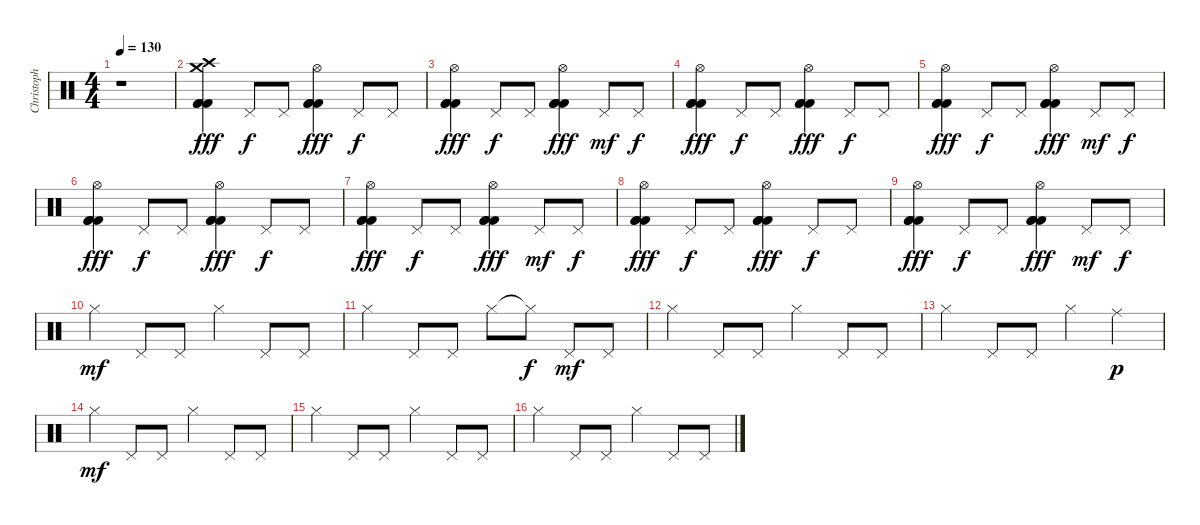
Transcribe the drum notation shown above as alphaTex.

\track ("Christoph Schneider" "Christoph ") {instrument percussion}
\staff {score}
\articulation defaults
\ts (4 4)
\tempo 130
\clef neutral
\ks c
r.1{dy fff} |
("Crash medium (hit)" "Crash high (hit)" "Kick (hit) 2" "Kick (hit) 2" "Kick (hit) 2").4 "Pedal Hi-Hat (hit)".8{dy f} "Pedal Hi-Hat (hit)".8 ("Hi-Hat (open)" "Kick (hit) 2" "Kick (hit) 2" "Kick (hit) 2").4{dy fff} "Pedal Hi-Hat (hit)".8{dy f} "Pedal Hi-Hat (hit)".8 |
("Hi-Hat (open)" "Kick (hit) 2" "Kick (hit) 2" "Kick (hit) 2").4{dy fff} "Pedal Hi-Hat (hit)".8{dy f} "Pedal Hi-Hat (hit)".8 ("Hi-Hat (open)" "Kick (hit) 2" "Kick (hit) 2" "Kick (hit) 2").4{dy fff} "Pedal Hi-Hat (hit)".8{dy mf} "Pedal Hi-Hat (hit)".8{dy f} |
("Hi-Hat (open)" "Kick (hit) 2" "Kick (hit) 2" "Kick (hit) 2").4{dy fff} "Pedal Hi-Hat (hit)".8{dy f} "Pedal Hi-Hat (hit)".8 ("Hi-Hat (open)" "Kick (hit) 2" "Kick (hit) 2" "Kick (hit) 2").4{dy fff} "Pedal Hi-Hat (hit)".8{dy f} "Pedal Hi-Hat (hit)".8 |
("Hi-Hat (open)" "Kick (hit) 2" "Kick (hit) 2" "Kick (hit) 2").4{dy fff} "Pedal Hi-Hat (hit)".8{dy f} "Pedal Hi-Hat (hit)".8 ("Hi-Hat (open)" "Kick (hit) 2" "Kick (hit) 2" "Kick (hit) 2").4{dy fff} "Pedal Hi-Hat (hit)".8{dy mf} "Pedal Hi-Hat (hit)".8{dy f} |
("Hi-Hat (open)" "Kick (hit) 2" "Kick (hit) 2" "Kick (hit) 2").4{dy fff} "Pedal Hi-Hat (hit)".8{dy f} "Pedal Hi-Hat (hit)".8 ("Hi-Hat (open)" "Kick (hit) 2" "Kick (hit) 2" "Kick (hit) 2").4{dy fff} "Pedal Hi-Hat (hit)".8{dy f} "Pedal Hi-Hat (hit)".8 |
("Hi-Hat (open)" "Kick (hit) 2" "Kick (hit) 2" "Kick (hit) 2").4{dy fff} "Pedal Hi-Hat (hit)".8{dy f} "Pedal Hi-Hat (hit)".8 ("Hi-Hat (open)" "Kick (hit) 2" "Kick (hit) 2" "Kick (hit) 2").4{dy fff} "Pedal Hi-Hat (hit)".8{dy mf} "Pedal Hi-Hat (hit)".8{dy f} |
("Hi-Hat (open)" "Kick (hit) 2" "Kick (hit) 2" "Kick (hit) 2").4{dy fff} "Pedal Hi-Hat (hit)".8{dy f} "Pedal Hi-Hat (hit)".8 ("Hi-Hat (open)" "Kick (hit) 2" "Kick (hit) 2" "Kick (hit) 2").4{dy fff} "Pedal Hi-Hat (hit)".8{dy f} "Pedal Hi-Hat (hit)".8 |
("Hi-Hat (open)" "Kick (hit) 2" "Kick (hit) 2" "Kick (hit) 2").4{dy fff} "Pedal Hi-Hat (hit)".8{dy f} "Pedal Hi-Hat (hit)".8 ("Hi-Hat (open)" "Kick (hit) 2" "Kick (hit) 2" "Kick (hit) 2").4{dy fff} "Pedal Hi-Hat (hit)".8{dy mf} "Pedal Hi-Hat (hit)".8{dy f} |
"Hi-Hat (closed)".4{dy mf} "Pedal Hi-Hat (hit)".8 "Pedal Hi-Hat (hit)".8 "Hi-Hat (closed)".4 "Pedal Hi-Hat (hit)".8 "Pedal Hi-Hat (hit)".8 |
"Hi-Hat (closed)".4 "Pedal Hi-Hat (hit)".8 "Pedal Hi-Hat (hit)".8 "Hi-Hat (closed)".8 "Hi-Hat (closed)"{t}.8{dy f} "Pedal Hi-Hat (hit)".8{dy mf} "Pedal Hi-Hat (hit)".8 |
"Hi-Hat (closed)".4 "Pedal Hi-Hat (hit)".8 "Pedal Hi-Hat (hit)".8 "Hi-Hat (closed)".4 "Pedal Hi-Hat (hit)".8 "Pedal Hi-Hat (hit)".8 |
"Hi-Hat (closed)".4 "Pedal Hi-Hat (hit)".8 "Pedal Hi-Hat (hit)".8 "Hi-Hat (closed)".4 "Ride (middle)".4{dy p} |
"Hi-Hat (closed)".4{dy mf} "Pedal Hi-Hat (hit)".8 "Pedal Hi-Hat (hit)".8 "Hi-Hat (closed)".4 "Pedal Hi-Hat (hit)".8 "Pedal Hi-Hat (hit)".8 |
"Hi-Hat (closed)".4 "Pedal Hi-Hat (hit)".8 "Pedal Hi-Hat (hit)".8 "Hi-Hat (closed)".4 "Pedal Hi-Hat (hit)".8 "Pedal Hi-Hat (hit)".8 |
"Hi-Hat (closed)".4 "Pedal Hi-Hat (hit)".8 "Pedal Hi-Hat (hit)".8 "Hi-Hat (closed)".4 "Pedal Hi-Hat (hit)".8 "Pedal Hi-Hat (hit)".8
